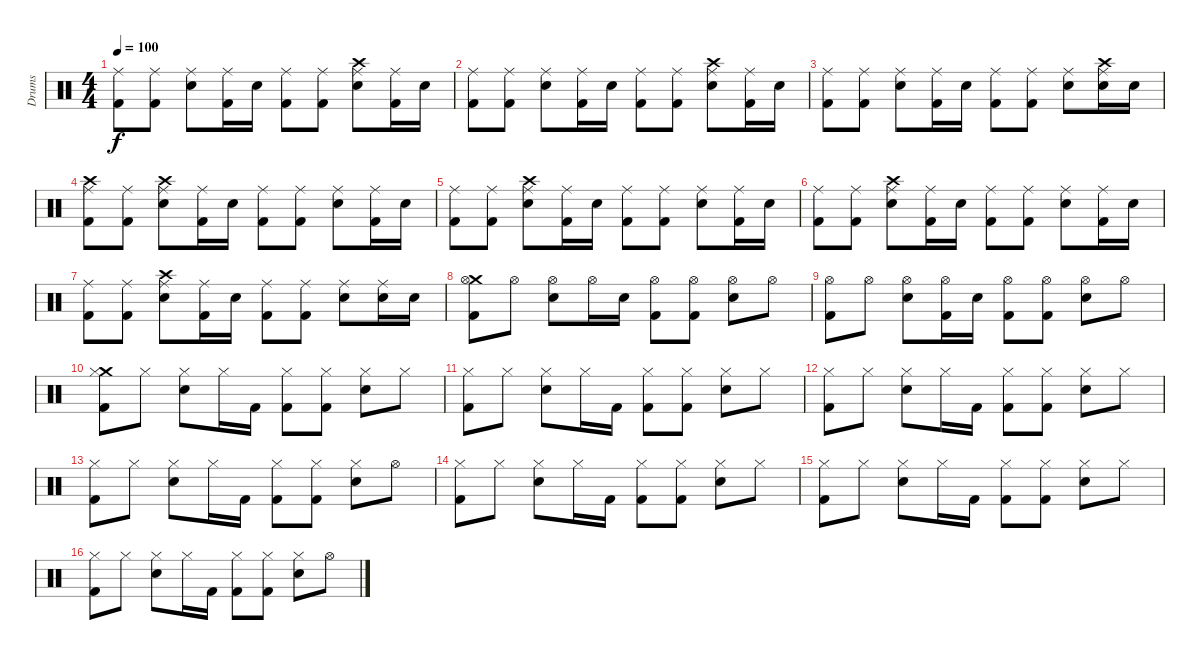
\track ("Drums" "Drums") {instrument percussion}
\staff {score}
\articulation defaults
\ts (4 4)
\tempo 100
\clef neutral
\ks c
("Ride (middle)" "Kick (hit) 2").8{dy f} ("Ride (middle)" "Kick (hit) 2").8 ("Ride (middle)" "Electric Snare (hit)").8 ("Ride (middle)" "Kick (hit) 2").16 "Electric Snare (hit)".16 ("Ride (middle)" "Kick (hit) 2").8 ("Ride (middle)" "Kick (hit) 2").8 ("Crash high (hit)" "Ride (middle)" "Electric Snare (hit)").8 ("Ride (middle)" "Kick (hit) 2").16 "Electric Snare (hit)".16 |
("Ride (middle)" "Kick (hit) 2").8 ("Ride (middle)" "Kick (hit) 2").8 ("Ride (middle)" "Electric Snare (hit)").8 ("Ride (middle)" "Kick (hit) 2").16 "Electric Snare (hit)".16 ("Ride (middle)" "Kick (hit) 2").8 ("Ride (middle)" "Kick (hit) 2").8 ("Crash high (hit)" "Ride (middle)" "Electric Snare (hit)").8 ("Ride (middle)" "Kick (hit) 2").16 "Electric Snare (hit)".16 |
("Ride (middle)" "Kick (hit) 2").8 ("Ride (middle)" "Kick (hit) 2").8 ("Ride (middle)" "Electric Snare (hit)").8 ("Ride (middle)" "Kick (hit) 2").16 "Electric Snare (hit)".16 ("Ride (middle)" "Kick (hit) 2").8 ("Ride (middle)" "Kick (hit) 2").8 ("Ride (middle)" "Electric Snare (hit)").8 ("Crash high (hit)" "Ride (middle)" "Electric Snare (hit)").16 "Electric Snare (hit)".16 |
("Crash high (hit)" "Ride (middle)" "Kick (hit) 2").8 ("Ride (middle)" "Kick (hit) 2").8 ("Crash high (hit)" "Ride (middle)" "Electric Snare (hit)").8 ("Ride (middle)" "Kick (hit) 2").16 "Electric Snare (hit)".16 ("Ride (middle)" "Kick (hit) 2").8 ("Ride (middle)" "Kick (hit) 2").8 ("Ride (middle)" "Electric Snare (hit)").8 ("Ride (middle)" "Kick (hit) 2").16 "Electric Snare (hit)".16 |
("Ride (middle)" "Kick (hit) 2").8 ("Ride (middle)" "Kick (hit) 2").8 ("Crash high (hit)" "Ride (middle)" "Electric Snare (hit)").8 ("Ride (middle)" "Kick (hit) 2").16 "Electric Snare (hit)".16 ("Ride (middle)" "Kick (hit) 2").8 ("Ride (middle)" "Kick (hit) 2").8 ("Ride (middle)" "Electric Snare (hit)").8 ("Ride (middle)" "Kick (hit) 2").16 "Electric Snare (hit)".16 |
("Ride (middle)" "Kick (hit) 2").8 ("Ride (middle)" "Kick (hit) 2").8 ("Crash high (hit)" "Ride (middle)" "Electric Snare (hit)").8 ("Ride (middle)" "Kick (hit) 2").16 "Electric Snare (hit)".16 ("Ride (middle)" "Kick (hit) 2").8 ("Ride (middle)" "Kick (hit) 2").8 ("Ride (middle)" "Electric Snare (hit)").8 ("Ride (middle)" "Kick (hit) 2").16 "Electric Snare (hit)".16 |
("Ride (middle)" "Kick (hit) 2").8 ("Ride (middle)" "Kick (hit) 2").8 ("Crash high (hit)" "Ride (middle)" "Electric Snare (hit)").8 ("Ride (middle)" "Kick (hit) 2").16 "Electric Snare (hit)".16 ("Ride (middle)" "Kick (hit) 2").8 ("Ride (middle)" "Kick (hit) 2").8 ("Ride (middle)" "Electric Snare (hit)").8 ("Ride (middle)" "Electric Snare (hit)").16 "Electric Snare (hit)".16 |
("Crash medium (hit)" "Hi-Hat (open)" "Kick (hit) 2").8 "Hi-Hat (open)".8 ("Hi-Hat (open)" "Electric Snare (hit)").8 "Hi-Hat (open)".16 "Electric Snare (hit)".16 ("Hi-Hat (open)" "Kick (hit) 2").8 ("Hi-Hat (open)" "Kick (hit) 2").8 ("Hi-Hat (open)" "Electric Snare (hit)").8 "Hi-Hat (open)".8 |
("Hi-Hat (open)" "Kick (hit) 2").8 "Hi-Hat (open)".8 ("Hi-Hat (open)" "Electric Snare (hit)").8 ("Hi-Hat (open)" "Kick (hit) 2").16 "Electric Snare (hit)".16 ("Hi-Hat (open)" "Kick (hit) 2").8 ("Hi-Hat (open)" "Kick (hit) 2").8 ("Hi-Hat (open)" "Electric Snare (hit)").8 "Hi-Hat (open)".8 |
("Crash medium (hit)" "Hi-Hat (closed)" "Kick (hit) 2").8 "Hi-Hat (closed)".8 ("Hi-Hat (closed)" "Electric Snare (hit)").8 "Hi-Hat (closed)".16 "Kick (hit) 2".16 ("Hi-Hat (closed)" "Kick (hit) 2").8 ("Hi-Hat (closed)" "Kick (hit) 2").8 ("Hi-Hat (closed)" "Electric Snare (hit)").8 "Hi-Hat (closed)".8 |
("Hi-Hat (closed)" "Kick (hit) 2").8 "Hi-Hat (closed)".8 ("Hi-Hat (closed)" "Electric Snare (hit)").8 "Hi-Hat (closed)".16 "Kick (hit) 2".16 ("Hi-Hat (closed)" "Kick (hit) 2").8 ("Hi-Hat (closed)" "Kick (hit) 2").8 ("Hi-Hat (closed)" "Electric Snare (hit)").8 "Hi-Hat (closed)".8 |
("Hi-Hat (closed)" "Kick (hit) 2").8 "Hi-Hat (closed)".8 ("Hi-Hat (closed)" "Electric Snare (hit)").8 "Hi-Hat (closed)".16 "Kick (hit) 2".16 ("Hi-Hat (closed)" "Kick (hit) 2").8 ("Hi-Hat (closed)" "Kick (hit) 2").8 ("Hi-Hat (closed)" "Electric Snare (hit)").8 "Hi-Hat (closed)".8 |
("Hi-Hat (closed)" "Kick (hit) 2").8 "Hi-Hat (closed)".8 ("Hi-Hat (closed)" "Electric Snare (hit)").8 "Hi-Hat (closed)".16 "Kick (hit) 2".16 ("Hi-Hat (closed)" "Kick (hit) 2").8 ("Hi-Hat (closed)" "Kick (hit) 2").8 ("Hi-Hat (closed)" "Electric Snare (hit)").8 "Hi-Hat (open)".8 |
("Hi-Hat (closed)" "Kick (hit) 2").8 "Hi-Hat (closed)".8 ("Hi-Hat (closed)" "Electric Snare (hit)").8 "Hi-Hat (closed)".16 "Kick (hit) 2".16 ("Hi-Hat (closed)" "Kick (hit) 2").8 ("Hi-Hat (closed)" "Kick (hit) 2").8 ("Hi-Hat (closed)" "Electric Snare (hit)").8 "Hi-Hat (closed)".8 |
("Hi-Hat (closed)" "Kick (hit) 2").8 "Hi-Hat (closed)".8 ("Hi-Hat (closed)" "Electric Snare (hit)").8 "Hi-Hat (closed)".16 "Kick (hit) 2".16 ("Hi-Hat (closed)" "Kick (hit) 2").8 ("Hi-Hat (closed)" "Kick (hit) 2").8 ("Hi-Hat (closed)" "Electric Snare (hit)").8 "Hi-Hat (closed)".8 |
("Hi-Hat (closed)" "Kick (hit) 2").8 "Hi-Hat (closed)".8 ("Hi-Hat (closed)" "Electric Snare (hit)").8 "Hi-Hat (closed)".16 "Kick (hit) 2".16 ("Hi-Hat (closed)" "Kick (hit) 2").8 ("Hi-Hat (closed)" "Kick (hit) 2").8 ("Hi-Hat (closed)" "Electric Snare (hit)").8 "Hi-Hat (open)".8
